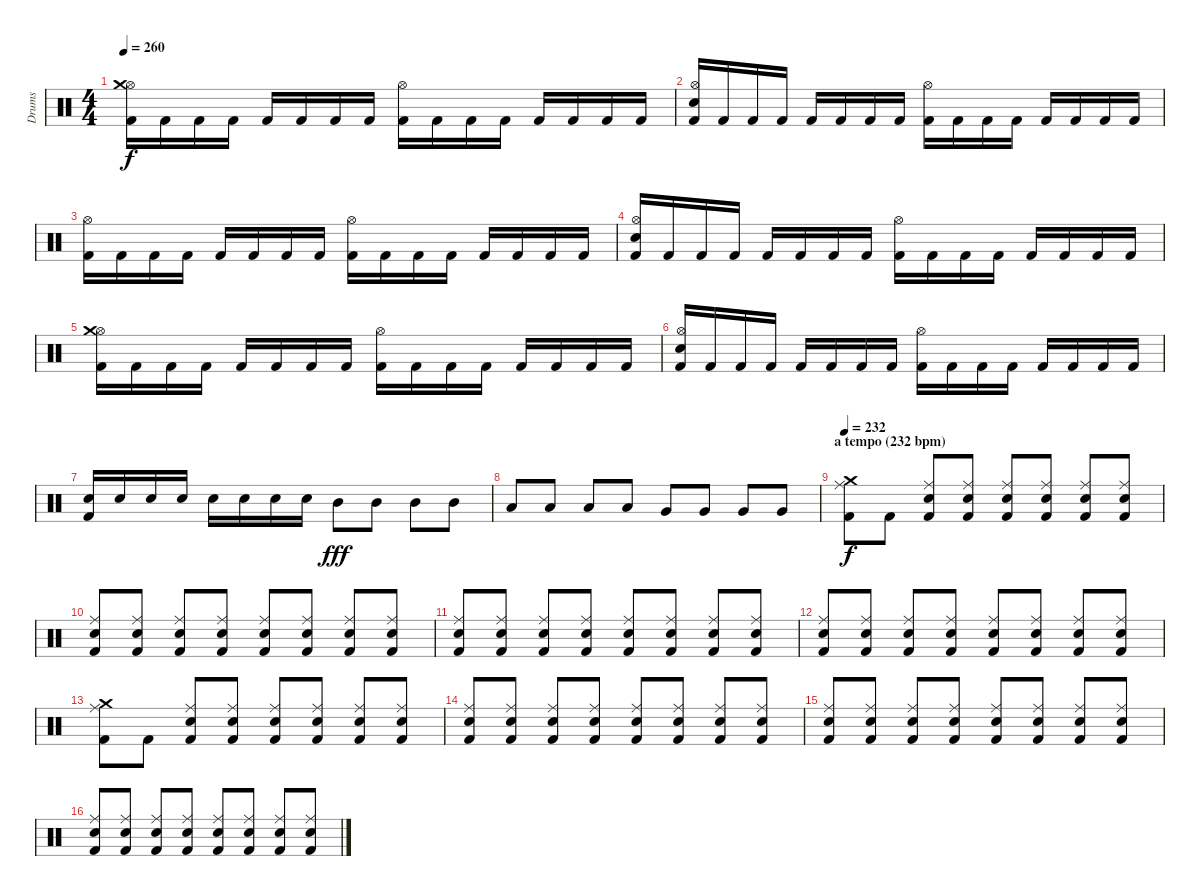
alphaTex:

\track ("Drums" "Drums") {instrument percussion}
\staff {score}
\articulation defaults
\ts (4 4)
\tempo 260
\clef neutral
\ks c
("Kick (hit) 2" "Hi-Hat (open)" "Crash medium (hit)").16{dy f} "Kick (hit) 2".16 "Kick (hit) 2".16 "Kick (hit) 2".16 "Kick (hit) 2".16 "Kick (hit) 2".16 "Kick (hit) 2".16 "Kick (hit) 2".16 ("Kick (hit) 2" "Hi-Hat (open)").16 "Kick (hit) 2".16 "Kick (hit) 2".16 "Kick (hit) 2".16 "Kick (hit) 2".16 "Kick (hit) 2".16 "Kick (hit) 2".16 "Kick (hit) 2".16 |
("Kick (hit) 2" "Electric Snare (hit)" "Hi-Hat (open)").16 "Kick (hit) 2".16 "Kick (hit) 2".16 "Kick (hit) 2".16 "Kick (hit) 2".16 "Kick (hit) 2".16 "Kick (hit) 2".16 "Kick (hit) 2".16 ("Kick (hit) 2" "Hi-Hat (open)").16 "Kick (hit) 2".16 "Kick (hit) 2".16 "Kick (hit) 2".16 "Kick (hit) 2".16 "Kick (hit) 2".16 "Kick (hit) 2".16 "Kick (hit) 2".16 |
("Kick (hit) 2" "Hi-Hat (open)").16 "Kick (hit) 2".16 "Kick (hit) 2".16 "Kick (hit) 2".16 "Kick (hit) 2".16 "Kick (hit) 2".16 "Kick (hit) 2".16 "Kick (hit) 2".16 ("Kick (hit) 2" "Hi-Hat (open)").16 "Kick (hit) 2".16 "Kick (hit) 2".16 "Kick (hit) 2".16 "Kick (hit) 2".16 "Kick (hit) 2".16 "Kick (hit) 2".16 "Kick (hit) 2".16 |
("Kick (hit) 2" "Electric Snare (hit)" "Hi-Hat (open)").16 "Kick (hit) 2".16 "Kick (hit) 2".16 "Kick (hit) 2".16 "Kick (hit) 2".16 "Kick (hit) 2".16 "Kick (hit) 2".16 "Kick (hit) 2".16 ("Kick (hit) 2" "Hi-Hat (open)").16 "Kick (hit) 2".16 "Kick (hit) 2".16 "Kick (hit) 2".16 "Kick (hit) 2".16 "Kick (hit) 2".16 "Kick (hit) 2".16 "Kick (hit) 2".16 |
("Kick (hit) 2" "Hi-Hat (open)" "Crash medium (hit)").16 "Kick (hit) 2".16 "Kick (hit) 2".16 "Kick (hit) 2".16 "Kick (hit) 2".16 "Kick (hit) 2".16 "Kick (hit) 2".16 "Kick (hit) 2".16 ("Kick (hit) 2" "Hi-Hat (open)").16 "Kick (hit) 2".16 "Kick (hit) 2".16 "Kick (hit) 2".16 "Kick (hit) 2".16 "Kick (hit) 2".16 "Kick (hit) 2".16 "Kick (hit) 2".16 |
("Kick (hit) 2" "Electric Snare (hit)" "Hi-Hat (open)").16 "Kick (hit) 2".16 "Kick (hit) 2".16 "Kick (hit) 2".16 "Kick (hit) 2".16 "Kick (hit) 2".16 "Kick (hit) 2".16 "Kick (hit) 2".16 ("Kick (hit) 2" "Hi-Hat (open)").16 "Kick (hit) 2".16 "Kick (hit) 2".16 "Kick (hit) 2".16 "Kick (hit) 2".16 "Kick (hit) 2".16 "Kick (hit) 2".16 "Kick (hit) 2".16 |
("Kick (hit) 2" "Electric Snare (hit)").16 "Electric Snare (hit)".16 "Electric Snare (hit)".16 "Electric Snare (hit)".16 "Electric Snare (hit)".16 "Electric Snare (hit)".16 "Electric Snare (hit)".16 "Electric Snare (hit)".16 "Mid Tom (hit)".8{dy fff} "Mid Tom (hit)".8 "Mid Tom (hit)".8 "Mid Tom (hit)".8 |
"Low Tom (hit)".8 "Low Tom (hit)".8 "Low Tom (hit)".8 "Low Tom (hit)".8 "Very Low Tom (hit)".8 "Very Low Tom (hit)".8 "Very Low Tom (hit)".8 "Very Low Tom (hit)".8 |
\section ("" "a tempo (232 bpm)")
\tempo 232
("Kick (hit) 2" "Ride (middle)" "Crash medium (hit)").8{dy f} "Kick (hit) 2".8 ("Kick (hit) 2" "Snare (hit) 2" "Ride (middle)").8 ("Kick (hit) 2" "Snare (hit) 2" "Ride (middle)").8 ("Kick (hit) 2" "Snare (hit) 2" "Ride (middle)").8 ("Kick (hit) 2" "Snare (hit) 2" "Ride (middle)").8 ("Kick (hit) 2" "Snare (hit) 2" "Ride (middle)").8 ("Kick (hit) 2" "Snare (hit) 2" "Ride (middle)").8 |
("Kick (hit) 2" "Snare (hit) 2" "Ride (middle)").8 ("Kick (hit) 2" "Snare (hit) 2" "Ride (middle)").8 ("Kick (hit) 2" "Snare (hit) 2" "Ride (middle)").8 ("Kick (hit) 2" "Snare (hit) 2" "Ride (middle)").8 ("Kick (hit) 2" "Snare (hit) 2" "Ride (middle)").8 ("Kick (hit) 2" "Snare (hit) 2" "Ride (middle)").8 ("Kick (hit) 2" "Snare (hit) 2" "Ride (middle)").8 ("Kick (hit) 2" "Snare (hit) 2" "Ride (middle)").8 |
("Kick (hit) 2" "Snare (hit) 2" "Ride (middle)").8 ("Kick (hit) 2" "Snare (hit) 2" "Ride (middle)").8 ("Kick (hit) 2" "Snare (hit) 2" "Ride (middle)").8 ("Kick (hit) 2" "Snare (hit) 2" "Ride (middle)").8 ("Kick (hit) 2" "Snare (hit) 2" "Ride (middle)").8 ("Kick (hit) 2" "Snare (hit) 2" "Ride (middle)").8 ("Kick (hit) 2" "Snare (hit) 2" "Ride (middle)").8 ("Kick (hit) 2" "Snare (hit) 2" "Ride (middle)").8 |
("Kick (hit) 2" "Snare (hit) 2" "Ride (middle)").8 ("Kick (hit) 2" "Snare (hit) 2" "Ride (middle)").8 ("Kick (hit) 2" "Snare (hit) 2" "Ride (middle)").8 ("Kick (hit) 2" "Snare (hit) 2" "Ride (middle)").8 ("Kick (hit) 2" "Snare (hit) 2" "Ride (middle)").8 ("Kick (hit) 2" "Snare (hit) 2" "Ride (middle)").8 ("Kick (hit) 2" "Snare (hit) 2" "Ride (middle)").8 ("Kick (hit) 2" "Snare (hit) 2" "Ride (middle)").8 |
("Kick (hit) 2" "Ride (middle)" "Crash medium (hit)").8 "Kick (hit) 2".8 ("Kick (hit) 2" "Snare (hit) 2" "Ride (middle)").8 ("Kick (hit) 2" "Snare (hit) 2" "Ride (middle)").8 ("Kick (hit) 2" "Snare (hit) 2" "Ride (middle)").8 ("Kick (hit) 2" "Snare (hit) 2" "Ride (middle)").8 ("Kick (hit) 2" "Snare (hit) 2" "Ride (middle)").8 ("Kick (hit) 2" "Snare (hit) 2" "Ride (middle)").8 |
("Kick (hit) 2" "Snare (hit) 2" "Ride (middle)").8 ("Kick (hit) 2" "Snare (hit) 2" "Ride (middle)").8 ("Kick (hit) 2" "Snare (hit) 2" "Ride (middle)").8 ("Kick (hit) 2" "Snare (hit) 2" "Ride (middle)").8 ("Kick (hit) 2" "Snare (hit) 2" "Ride (middle)").8 ("Kick (hit) 2" "Snare (hit) 2" "Ride (middle)").8 ("Kick (hit) 2" "Snare (hit) 2" "Ride (middle)").8 ("Kick (hit) 2" "Snare (hit) 2" "Ride (middle)").8 |
("Kick (hit) 2" "Snare (hit) 2" "Ride (middle)").8 ("Kick (hit) 2" "Snare (hit) 2" "Ride (middle)").8 ("Kick (hit) 2" "Snare (hit) 2" "Ride (middle)").8 ("Kick (hit) 2" "Snare (hit) 2" "Ride (middle)").8 ("Kick (hit) 2" "Snare (hit) 2" "Ride (middle)").8 ("Kick (hit) 2" "Snare (hit) 2" "Ride (middle)").8 ("Kick (hit) 2" "Snare (hit) 2" "Ride (middle)").8 ("Kick (hit) 2" "Snare (hit) 2" "Ride (middle)").8 |
("Kick (hit) 2" "Snare (hit) 2" "Ride (middle)").8 ("Kick (hit) 2" "Snare (hit) 2" "Ride (middle)").8 ("Kick (hit) 2" "Snare (hit) 2" "Ride (middle)").8 ("Kick (hit) 2" "Snare (hit) 2" "Ride (middle)").8 ("Kick (hit) 2" "Snare (hit) 2" "Ride (middle)").8 ("Kick (hit) 2" "Snare (hit) 2" "Ride (middle)").8 ("Kick (hit) 2" "Snare (hit) 2" "Ride (middle)").8 ("Kick (hit) 2" "Snare (hit) 2" "Ride (middle)").8
